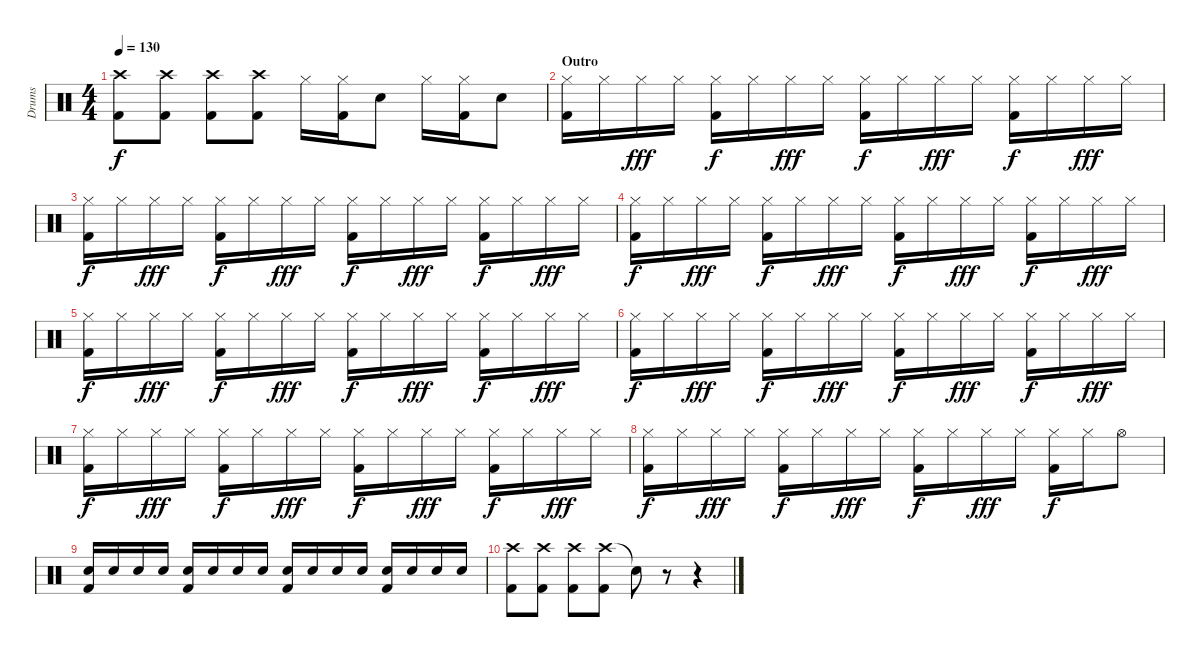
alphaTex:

\track ("Drums" "Drums") {instrument percussion}
\staff {score}
\articulation defaults
\ts (4 4)
\tempo 130
\clef neutral
\ks c
("Crash high (hit)" "Kick (hit) 2").8{dy f} ("Crash high (hit)" "Kick (hit) 2").8 ("Crash high (hit)" "Kick (hit) 2").8 ("Crash high (hit)" "Kick (hit) 2").8 "Hi-Hat (closed)".16 ("Hi-Hat (closed)" "Kick (hit) 2").16 "Electric Snare (hit)".8 "Hi-Hat (closed)".16 ("Hi-Hat (closed)" "Kick (hit) 2").16 "Electric Snare (hit)".8 |
\section ("" "Outro")
("Hi-Hat (closed)" "Kick (hit) 2").16 "Hi-Hat (closed)".16 "Hi-Hat (closed)".16{dy fff} "Hi-Hat (closed)".16 ("Hi-Hat (closed)" "Kick (hit) 2").16{dy f} "Hi-Hat (closed)".16 "Hi-Hat (closed)".16{dy fff} "Hi-Hat (closed)".16 ("Hi-Hat (closed)" "Kick (hit) 2").16{dy f} "Hi-Hat (closed)".16 "Hi-Hat (closed)".16{dy fff} "Hi-Hat (closed)".16 ("Hi-Hat (closed)" "Kick (hit) 2").16{dy f} "Hi-Hat (closed)".16 "Hi-Hat (closed)".16{dy fff} "Hi-Hat (closed)".16 |
("Hi-Hat (closed)" "Kick (hit) 2").16{dy f} "Hi-Hat (closed)".16 "Hi-Hat (closed)".16{dy fff} "Hi-Hat (closed)".16 ("Hi-Hat (closed)" "Kick (hit) 2").16{dy f} "Hi-Hat (closed)".16 "Hi-Hat (closed)".16{dy fff} "Hi-Hat (closed)".16 ("Hi-Hat (closed)" "Kick (hit) 2").16{dy f} "Hi-Hat (closed)".16 "Hi-Hat (closed)".16{dy fff} "Hi-Hat (closed)".16 ("Hi-Hat (closed)" "Kick (hit) 2").16{dy f} "Hi-Hat (closed)".16 "Hi-Hat (closed)".16{dy fff} "Hi-Hat (closed)".16 |
("Hi-Hat (closed)" "Kick (hit) 2").16{dy f} "Hi-Hat (closed)".16 "Hi-Hat (closed)".16{dy fff} "Hi-Hat (closed)".16 ("Hi-Hat (closed)" "Kick (hit) 2").16{dy f} "Hi-Hat (closed)".16 "Hi-Hat (closed)".16{dy fff} "Hi-Hat (closed)".16 ("Hi-Hat (closed)" "Kick (hit) 2").16{dy f} "Hi-Hat (closed)".16 "Hi-Hat (closed)".16{dy fff} "Hi-Hat (closed)".16 ("Hi-Hat (closed)" "Kick (hit) 2").16{dy f} "Hi-Hat (closed)".16 "Hi-Hat (closed)".16{dy fff} "Hi-Hat (closed)".16 |
("Hi-Hat (closed)" "Kick (hit) 2").16{dy f} "Hi-Hat (closed)".16 "Hi-Hat (closed)".16{dy fff} "Hi-Hat (closed)".16 ("Hi-Hat (closed)" "Kick (hit) 2").16{dy f} "Hi-Hat (closed)".16 "Hi-Hat (closed)".16{dy fff} "Hi-Hat (closed)".16 ("Hi-Hat (closed)" "Kick (hit) 2").16{dy f} "Hi-Hat (closed)".16 "Hi-Hat (closed)".16{dy fff} "Hi-Hat (closed)".16 ("Hi-Hat (closed)" "Kick (hit) 2").16{dy f} "Hi-Hat (closed)".16 "Hi-Hat (closed)".16{dy fff} "Hi-Hat (closed)".16 |
("Hi-Hat (closed)" "Kick (hit) 2").16{dy f} "Hi-Hat (closed)".16 "Hi-Hat (closed)".16{dy fff} "Hi-Hat (closed)".16 ("Hi-Hat (closed)" "Kick (hit) 2").16{dy f} "Hi-Hat (closed)".16 "Hi-Hat (closed)".16{dy fff} "Hi-Hat (closed)".16 ("Hi-Hat (closed)" "Kick (hit) 2").16{dy f} "Hi-Hat (closed)".16 "Hi-Hat (closed)".16{dy fff} "Hi-Hat (closed)".16 ("Hi-Hat (closed)" "Kick (hit) 2").16{dy f} "Hi-Hat (closed)".16 "Hi-Hat (closed)".16{dy fff} "Hi-Hat (closed)".16 |
("Hi-Hat (closed)" "Kick (hit) 2").16{dy f} "Hi-Hat (closed)".16 "Hi-Hat (closed)".16{dy fff} "Hi-Hat (closed)".16 ("Hi-Hat (closed)" "Kick (hit) 2").16{dy f} "Hi-Hat (closed)".16 "Hi-Hat (closed)".16{dy fff} "Hi-Hat (closed)".16 ("Hi-Hat (closed)" "Kick (hit) 2").16{dy f} "Hi-Hat (closed)".16 "Hi-Hat (closed)".16{dy fff} "Hi-Hat (closed)".16 ("Hi-Hat (closed)" "Kick (hit) 2").16{dy f} "Hi-Hat (closed)".16 "Hi-Hat (closed)".16{dy fff} "Hi-Hat (closed)".16 |
("Hi-Hat (closed)" "Kick (hit) 2").16{dy f} "Hi-Hat (closed)".16 "Hi-Hat (closed)".16{dy fff} "Hi-Hat (closed)".16 ("Hi-Hat (closed)" "Kick (hit) 2").16{dy f} "Hi-Hat (closed)".16 "Hi-Hat (closed)".16{dy fff} "Hi-Hat (closed)".16 ("Hi-Hat (closed)" "Kick (hit) 2").16{dy f} "Hi-Hat (closed)".16 "Hi-Hat (closed)".16{dy fff} "Hi-Hat (closed)".16 ("Hi-Hat (closed)" "Kick (hit) 2").16{dy f} "Hi-Hat (closed)".16 "Hi-Hat (open)".8 |
("Electric Snare (hit)" "Kick (hit) 2").16 "Electric Snare (hit)".16 "Electric Snare (hit)".16 "Electric Snare (hit)".16 ("Electric Snare (hit)" "Kick (hit) 2").16 "Electric Snare (hit)".16 "Electric Snare (hit)".16 "Electric Snare (hit)".16 ("Electric Snare (hit)" "Kick (hit) 2").16 "Electric Snare (hit)".16 "Electric Snare (hit)".16 "Electric Snare (hit)".16 ("Electric Snare (hit)" "Kick (hit) 2").16 "Electric Snare (hit)".16 "Electric Snare (hit)".16 "Electric Snare (hit)".16 |
("Crash high (hit)" "Kick (hit) 2").8 ("Crash high (hit)" "Kick (hit) 2").8 ("Crash high (hit)" "Kick (hit) 2").8 ("Crash high (hit)" "Kick (hit) 2").8 "Snare (hit)"{t}.8 r.8 r.4
